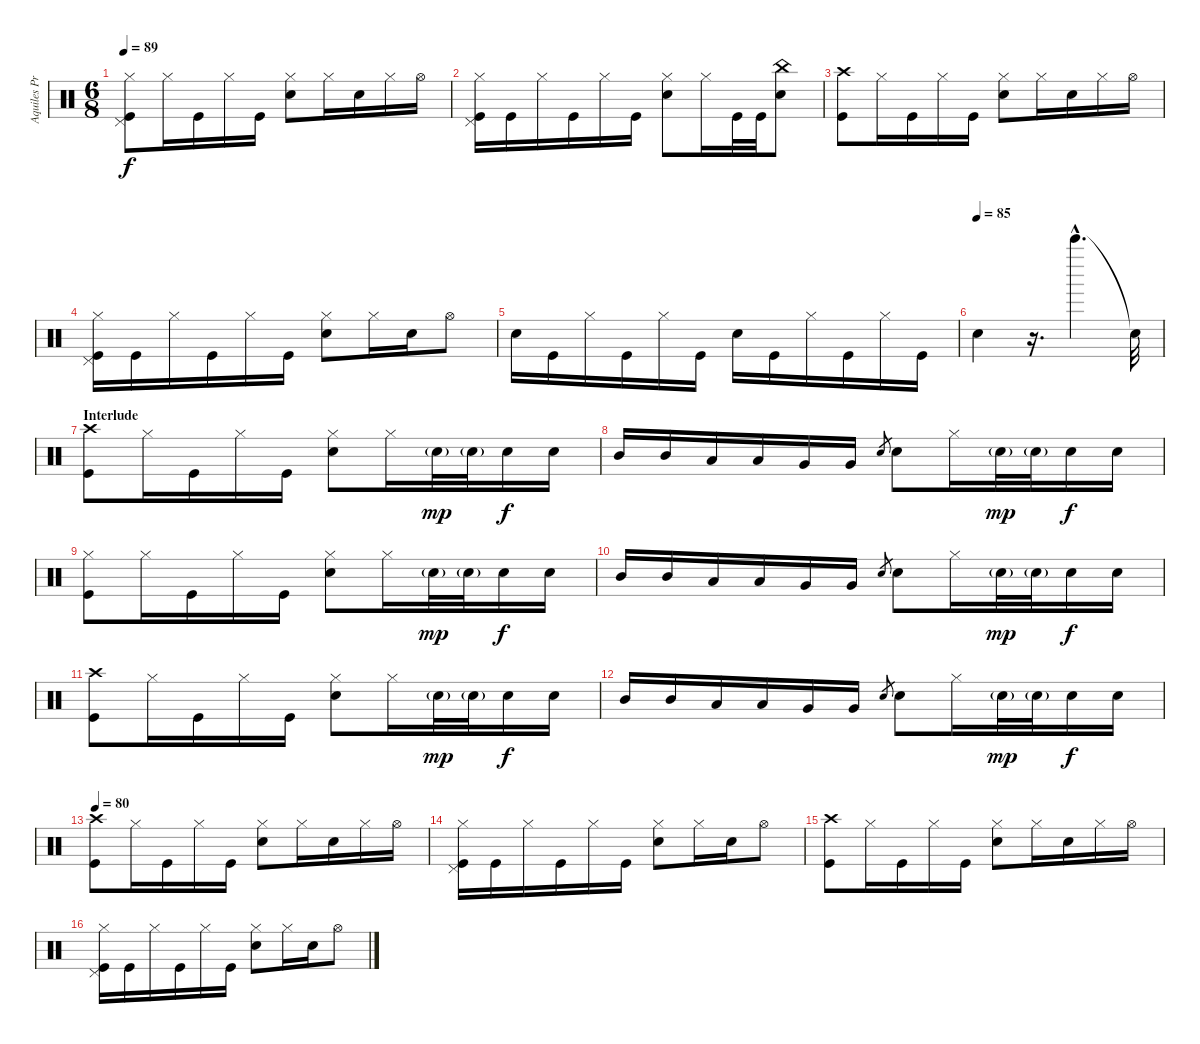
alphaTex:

\track ("Aquiles Priester" "Aquiles Pr") {instrument percussion}
\staff {score}
\articulation defaults
\ts (6 8)
\tempo 89
\clef neutral
\ks c
("Hi-Hat (closed)" "Pedal Hi-Hat (hit)" "Kick (hit)").8{dy f} "Hi-Hat (closed)".16 "Kick (hit)".16 "Hi-Hat (closed)".16 "Kick (hit)".16 ("Hi-Hat (closed)" "Electric Snare (hit)").8 "Hi-Hat (closed)".16 "Electric Snare (hit)".16 "Hi-Hat (closed)".16 "Hi-Hat (open)".16 |
("Hi-Hat (closed)" "Pedal Hi-Hat (hit)" "Kick (hit)").16 "Kick (hit)".16 "Hi-Hat (closed)".16 "Kick (hit)".16 "Hi-Hat (closed)".16 "Kick (hit)".16 ("Hi-Hat (closed)" "Electric Snare (hit)").8 "Hi-Hat (closed)".16 "Kick (hit)".32 "Kick (hit)".32 ("China (hit)" "Electric Snare (hit)").8 |
("Crash high (hit)" "Kick (hit)").8 "Hi-Hat (closed)".16 "Kick (hit)".16 "Hi-Hat (closed)".16 "Kick (hit)".16 ("Hi-Hat (closed)" "Electric Snare (hit)").8 "Hi-Hat (closed)".16 "Electric Snare (hit)".16 "Hi-Hat (closed)".16 "Hi-Hat (open)".16 |
("Hi-Hat (closed)" "Pedal Hi-Hat (hit)" "Kick (hit)").16 "Kick (hit)".16 "Hi-Hat (closed)".16 "Kick (hit)".16 "Hi-Hat (closed)".16 "Kick (hit)".16 ("Hi-Hat (closed)" "Electric Snare (hit)").8 "Hi-Hat (closed)".16 "Electric Snare (hit)".16 "Hi-Hat (open)".8 |
"Electric Snare (hit)".16 "Kick (hit)".16 "Hi-Hat (closed)".16 "Kick (hit)".16 "Hi-Hat (closed)".16 "Kick (hit)".16 "Electric Snare (hit)".16 "Kick (hit)".16 "Hi-Hat (closed)".16 "Kick (hit)".16 "Hi-Hat (closed)".16 "Kick (hit)".16 |
\tempo (85)
"Electric Snare (hit)".4 r.16{d} "Bell Tree (hit)"{hac}.4{d} "Snare (hit)"{t}.32 |
\section ("" "Interlude")
("Crash high (hit)" "Kick (hit)").8 "Hi-Hat (closed)".16 "Kick (hit)".16 "Hi-Hat (closed)".16 "Kick (hit)".16 ("Hi-Hat (closed)" "Electric Snare (hit)").8 "Hi-Hat (closed)".16 "Electric Snare (hit)"{g}.32{dy mp} "Electric Snare (hit)"{g}.32 "Electric Snare (hit)".16{dy f} "Electric Snare (hit)".16 |
"Mid Tom (hit)".16 "Mid Tom (hit)".16 "Low Tom (hit)".16 "Low Tom (hit)".16 "Very Low Tom (hit)".16 "Very Low Tom (hit)".16 "Electric Snare (hit)".8{gr} "Electric Snare (hit)".8 "Hi-Hat (closed)".16 "Electric Snare (hit)"{g}.32{dy mp} "Electric Snare (hit)"{g}.32 "Electric Snare (hit)".16{dy f} "Electric Snare (hit)".16 |
("Hi-Hat (closed)" "Kick (hit)").8 "Hi-Hat (closed)".16 "Kick (hit)".16 "Hi-Hat (closed)".16 "Kick (hit)".16 ("Hi-Hat (closed)" "Electric Snare (hit)").8 "Hi-Hat (closed)".16 "Electric Snare (hit)"{g}.32{dy mp} "Electric Snare (hit)"{g}.32 "Electric Snare (hit)".16{dy f} "Electric Snare (hit)".16 |
"Mid Tom (hit)".16 "Mid Tom (hit)".16 "Low Tom (hit)".16 "Low Tom (hit)".16 "Very Low Tom (hit)".16 "Very Low Tom (hit)".16 "Electric Snare (hit)".8{gr} "Electric Snare (hit)".8 "Hi-Hat (closed)".16 "Electric Snare (hit)"{g}.32{dy mp} "Electric Snare (hit)"{g}.32 "Electric Snare (hit)".16{dy f} "Electric Snare (hit)".16 |
("Crash high (hit)" "Kick (hit)").8 "Hi-Hat (closed)".16 "Kick (hit)".16 "Hi-Hat (closed)".16 "Kick (hit)".16 ("Hi-Hat (closed)" "Electric Snare (hit)").8 "Hi-Hat (closed)".16 "Electric Snare (hit)"{g}.32{dy mp} "Electric Snare (hit)"{g}.32 "Electric Snare (hit)".16{dy f} "Electric Snare (hit)".16 |
"Mid Tom (hit)".16 "Mid Tom (hit)".16 "Low Tom (hit)".16 "Low Tom (hit)".16 "Very Low Tom (hit)".16 "Very Low Tom (hit)".16 "Electric Snare (hit)".8{gr} "Electric Snare (hit)".8 "Hi-Hat (closed)".16 "Electric Snare (hit)"{g}.32{dy mp} "Electric Snare (hit)"{g}.32 "Electric Snare (hit)".16{dy f} "Electric Snare (hit)".16 |
\tempo 80
("Crash high (hit)" "Kick (hit)").8 "Hi-Hat (closed)".16 "Kick (hit)".16 "Hi-Hat (closed)".16 "Kick (hit)".16 ("Hi-Hat (closed)" "Electric Snare (hit)").8 "Hi-Hat (closed)".16 "Electric Snare (hit)".16 "Hi-Hat (closed)".16 "Hi-Hat (open)".16 |
("Hi-Hat (closed)" "Pedal Hi-Hat (hit)" "Kick (hit)").16 "Kick (hit)".16 "Hi-Hat (closed)".16 "Kick (hit)".16 "Hi-Hat (closed)".16 "Kick (hit)".16 ("Hi-Hat (closed)" "Electric Snare (hit)").8 "Hi-Hat (closed)".16 "Electric Snare (hit)".16 "Hi-Hat (open)".8 |
("Crash high (hit)" "Kick (hit)").8 "Hi-Hat (closed)".16 "Kick (hit)".16 "Hi-Hat (closed)".16 "Kick (hit)".16 ("Hi-Hat (closed)" "Electric Snare (hit)").8 "Hi-Hat (closed)".16 "Electric Snare (hit)".16 "Hi-Hat (closed)".16 "Hi-Hat (open)".16 |
("Hi-Hat (closed)" "Pedal Hi-Hat (hit)" "Kick (hit)").16 "Kick (hit)".16 "Hi-Hat (closed)".16 "Kick (hit)".16 "Hi-Hat (closed)".16 "Kick (hit)".16 ("Hi-Hat (closed)" "Electric Snare (hit)").8 "Hi-Hat (closed)".16 "Electric Snare (hit)".16 "Hi-Hat (open)".8
